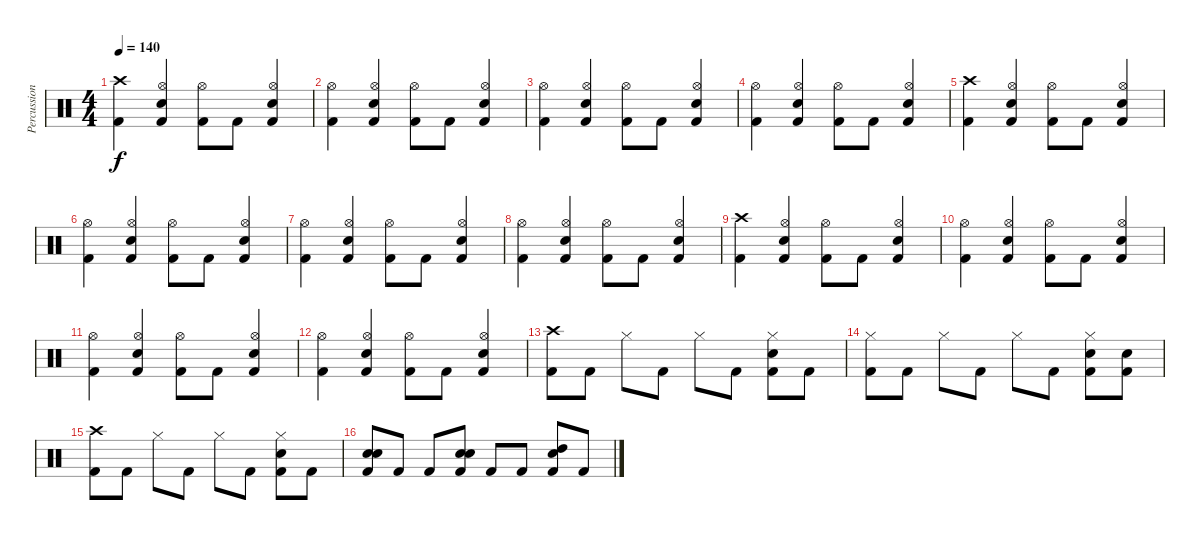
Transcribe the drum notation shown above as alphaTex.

\track ("Percussions" "Percussion") {instrument percussion}
\staff {score}
\articulation defaults
\ts (4 4)
\tempo 140
\clef neutral
\ks c
("Crash high (hit)" "Kick (hit) 2").4{dy f} ("Hi-Hat (open)" "Electric Snare (hit)" "Kick (hit) 2").4 ("Hi-Hat (open)" "Kick (hit) 2").8 "Kick (hit) 2".8 ("Hi-Hat (open)" "Electric Snare (hit)" "Kick (hit) 2").4 |
("Hi-Hat (open)" "Kick (hit) 2").4 ("Hi-Hat (open)" "Electric Snare (hit)" "Kick (hit) 2").4 ("Hi-Hat (open)" "Kick (hit) 2").8 "Kick (hit) 2".8 ("Hi-Hat (open)" "Electric Snare (hit)" "Kick (hit) 2").4 |
("Hi-Hat (open)" "Kick (hit) 2").4 ("Hi-Hat (open)" "Electric Snare (hit)" "Kick (hit) 2").4 ("Hi-Hat (open)" "Kick (hit) 2").8 "Kick (hit) 2".8 ("Hi-Hat (open)" "Electric Snare (hit)" "Kick (hit) 2").4 |
("Hi-Hat (open)" "Kick (hit) 2").4 ("Hi-Hat (open)" "Electric Snare (hit)" "Kick (hit) 2").4 ("Hi-Hat (open)" "Kick (hit) 2").8 "Kick (hit) 2".8 ("Hi-Hat (open)" "Electric Snare (hit)" "Kick (hit) 2").4 |
("Crash high (hit)" "Kick (hit) 2").4 ("Hi-Hat (open)" "Electric Snare (hit)" "Kick (hit) 2").4 ("Hi-Hat (open)" "Kick (hit) 2").8 "Kick (hit) 2".8 ("Hi-Hat (open)" "Electric Snare (hit)" "Kick (hit) 2").4 |
("Hi-Hat (open)" "Kick (hit) 2").4 ("Hi-Hat (open)" "Electric Snare (hit)" "Kick (hit) 2").4 ("Hi-Hat (open)" "Kick (hit) 2").8 "Kick (hit) 2".8 ("Hi-Hat (open)" "Electric Snare (hit)" "Kick (hit) 2").4 |
("Hi-Hat (open)" "Kick (hit) 2").4 ("Hi-Hat (open)" "Electric Snare (hit)" "Kick (hit) 2").4 ("Hi-Hat (open)" "Kick (hit) 2").8 "Kick (hit) 2".8 ("Hi-Hat (open)" "Electric Snare (hit)" "Kick (hit) 2").4 |
("Hi-Hat (open)" "Kick (hit) 2").4 ("Hi-Hat (open)" "Electric Snare (hit)" "Kick (hit) 2").4 ("Hi-Hat (open)" "Kick (hit) 2").8 "Kick (hit) 2".8 ("Hi-Hat (open)" "Electric Snare (hit)" "Kick (hit) 2").4 |
("Crash high (hit)" "Kick (hit) 2").4 ("Hi-Hat (open)" "Electric Snare (hit)" "Kick (hit) 2").4 ("Hi-Hat (open)" "Kick (hit) 2").8 "Kick (hit) 2".8 ("Hi-Hat (open)" "Electric Snare (hit)" "Kick (hit) 2").4 |
("Hi-Hat (open)" "Kick (hit) 2").4 ("Hi-Hat (open)" "Electric Snare (hit)" "Kick (hit) 2").4 ("Hi-Hat (open)" "Kick (hit) 2").8 "Kick (hit) 2".8 ("Hi-Hat (open)" "Electric Snare (hit)" "Kick (hit) 2").4 |
("Hi-Hat (open)" "Kick (hit) 2").4 ("Hi-Hat (open)" "Electric Snare (hit)" "Kick (hit) 2").4 ("Hi-Hat (open)" "Kick (hit) 2").8 "Kick (hit) 2".8 ("Hi-Hat (open)" "Electric Snare (hit)" "Kick (hit) 2").4 |
("Hi-Hat (open)" "Kick (hit) 2").4 ("Hi-Hat (open)" "Electric Snare (hit)" "Kick (hit) 2").4 ("Hi-Hat (open)" "Kick (hit) 2").8 "Kick (hit) 2".8 ("Hi-Hat (open)" "Electric Snare (hit)" "Kick (hit) 2").4 |
("Crash high (hit)" "Kick (hit) 2").8 "Kick (hit) 2".8 "Hi-Hat (closed)".8 "Kick (hit) 2".8 "Hi-Hat (closed)".8 "Kick (hit) 2".8 ("Hi-Hat (closed)" "Electric Snare (hit)" "Kick (hit) 2").8 "Kick (hit) 2".8 |
("Hi-Hat (closed)" "Kick (hit) 2").8 "Kick (hit) 2".8 "Hi-Hat (closed)".8 "Kick (hit) 2".8 "Hi-Hat (closed)".8 "Kick (hit) 2".8 ("Hi-Hat (closed)" "Electric Snare (hit)" "Kick (hit) 2").8 ("Electric Snare (hit)" "Kick (hit) 2").8 |
("Crash high (hit)" "Kick (hit) 2").8 "Kick (hit) 2".8 "Hi-Hat (closed)".8 "Kick (hit) 2".8 "Hi-Hat (closed)".8 "Kick (hit) 2".8 ("Hi-Hat (closed)" "Electric Snare (hit)" "Kick (hit) 2").8 "Kick (hit) 2".8 |
("Snare (hit) 2" "Electric Snare (hit)" "Kick (hit) 2").8 "Kick (hit) 2".8 "Kick (hit) 2".8 ("Snare (hit) 2" "Electric Snare (hit)" "Kick (hit) 2").8 "Kick (hit) 2".8 "Kick (hit) 2".8 ("Electric Snare (hit)" "High Tom (hit)" "Kick (hit) 2").8 "Kick (hit) 2".8
